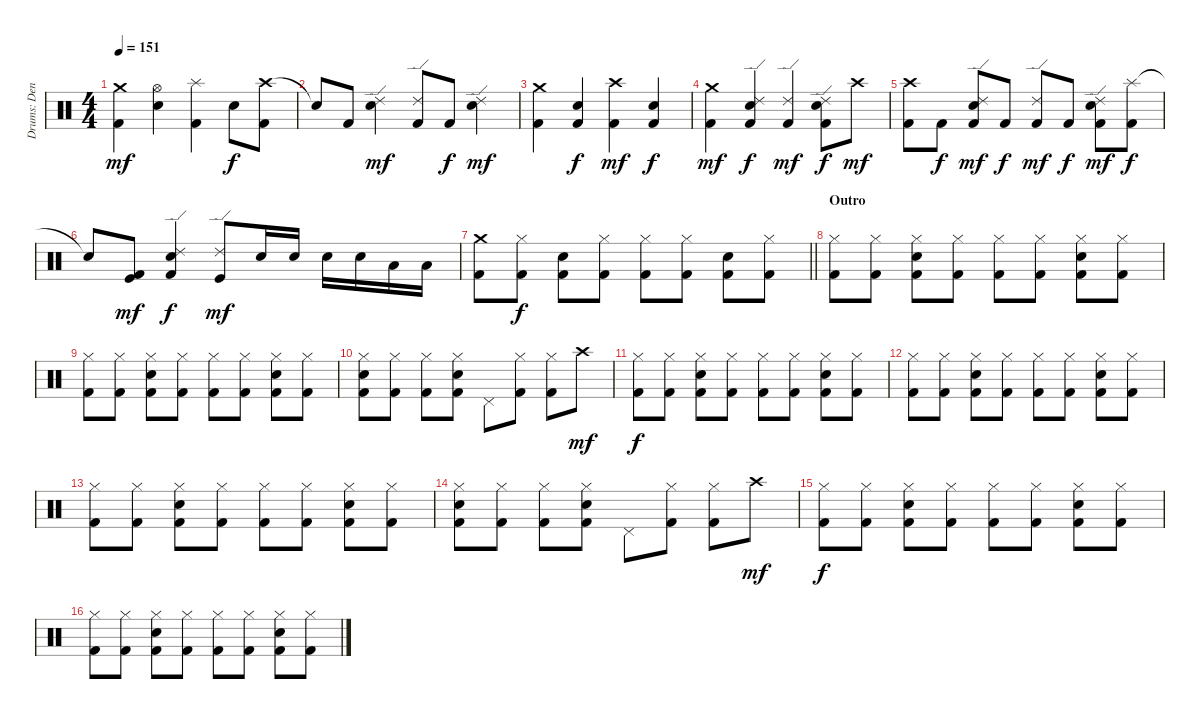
\track ("Drums: Denny Carmassi" "Drums: Den") {instrument percussion}
\staff {score}
\articulation defaults
\ts (4 4)
\tempo 151
\clef neutral
\ks c
("Crash medium (hit)" "Kick (hit) 2").4{dy mf} ("Hi-Hat (open)" "Snare (hit) 2").4 ("Splash (hit)" "Kick (hit) 2").4 "Snare (hit) 2".8{dy f} ("Crash high (hit)" "Kick (hit) 2").8 |
"Snare (hit)"{t}.8 "Kick (hit) 2".8 ("Ride (edge) 2" "Snare (hit) 2").4{dy mf} ("Ride (edge) 2" "Kick (hit) 2").8 "Kick (hit) 2".8{dy f} ("Ride (edge) 2" "Snare (hit) 2").4{dy mf} |
("Crash medium (hit)" "Kick (hit) 2").4 ("Snare (hit) 2" "Kick (hit) 2").4{dy f} ("Crash high (hit)" "Kick (hit) 2").4{dy mf} ("Snare (hit) 2" "Kick (hit) 2").4{dy f} |
("Crash medium (hit)" "Kick (hit) 2").4{dy mf} ("Ride (edge) 2" "Snare (hit) 2" "Kick (hit) 2").4{dy f} ("Ride (edge) 2" "Kick (hit) 2").4{dy mf} ("Ride (edge) 2" "Snare (hit) 2" "Kick (hit) 2").8{dy f} "Crash high (hit)".8{dy mf} |
("Crash high (hit)" "Kick (hit) 2").8 "Kick (hit) 2".8{dy f} ("Ride (edge) 2" "Snare (hit) 2" "Kick (hit) 2").8{dy mf} "Kick (hit) 2".8{dy f} ("Ride (edge) 2" "Kick (hit) 2").8{dy mf} "Kick (hit) 2".8{dy f} ("Ride (edge) 2" "Snare (hit) 2" "Kick (hit) 2").8{dy mf} ("Splash (hit)" "Kick (hit) 2").8{dy f} |
"Snare (hit)"{t}.8 ("Kick (hit)" "Kick (hit) 2").8{dy mf} ("Ride (edge) 2" "Snare (hit) 2" "Kick (hit) 2").4{dy f} ("Kick (hit)" "Ride (edge) 2").8{dy mf} "Snare (hit) 2".16 "Snare (hit) 2".16 "Snare (hit) 2".16 "Snare (hit) 2".16 "Low Floor Tom (hit)".16 "Low Floor Tom (hit)".16 |
\barLineRight lightlight
("Crash medium (hit)" "Kick (hit) 2").8 ("Hi-Hat (closed)" "Kick (hit) 2").8{dy f} ("Snare (hit) 2" "Kick (hit) 2").8 ("Hi-Hat (closed)" "Kick (hit) 2").8 ("Hi-Hat (closed)" "Kick (hit) 2").8 ("Hi-Hat (closed)" "Kick (hit) 2").8 ("Snare (hit) 2" "Kick (hit) 2").8 ("Hi-Hat (closed)" "Kick (hit) 2").8 |
\section ("" "Outro")
("Hi-Hat (closed)" "Kick (hit) 2").8 ("Hi-Hat (closed)" "Kick (hit) 2").8 ("Hi-Hat (closed)" "Snare (hit) 2" "Kick (hit) 2").8 ("Hi-Hat (closed)" "Kick (hit) 2").8 ("Hi-Hat (closed)" "Kick (hit) 2").8 ("Hi-Hat (closed)" "Kick (hit) 2").8 ("Hi-Hat (closed)" "Snare (hit) 2" "Kick (hit) 2").8 ("Hi-Hat (closed)" "Kick (hit) 2").8 |
("Hi-Hat (closed)" "Kick (hit) 2").8 ("Hi-Hat (closed)" "Kick (hit) 2").8 ("Hi-Hat (closed)" "Snare (hit) 2" "Kick (hit) 2").8 ("Hi-Hat (closed)" "Kick (hit) 2").8 ("Hi-Hat (closed)" "Kick (hit) 2").8 ("Hi-Hat (closed)" "Kick (hit) 2").8 ("Hi-Hat (closed)" "Snare (hit) 2" "Kick (hit) 2").8 ("Hi-Hat (closed)" "Kick (hit) 2").8 |
("Hi-Hat (closed)" "Snare (hit) 2" "Kick (hit) 2").8 ("Hi-Hat (closed)" "Kick (hit) 2").8 ("Hi-Hat (closed)" "Kick (hit) 2").8 ("Hi-Hat (closed)" "Snare (hit) 2" "Kick (hit) 2").8 "Pedal Hi-Hat (hit)".8 ("Hi-Hat (closed)" "Kick (hit) 2").8 ("Hi-Hat (closed)" "Kick (hit) 2").8 "Crash high (hit)".8{dy mf} |
("Hi-Hat (closed)" "Kick (hit) 2").8{dy f} ("Hi-Hat (closed)" "Kick (hit) 2").8 ("Hi-Hat (closed)" "Snare (hit) 2" "Kick (hit) 2").8 ("Hi-Hat (closed)" "Kick (hit) 2").8 ("Hi-Hat (closed)" "Kick (hit) 2").8 ("Hi-Hat (closed)" "Kick (hit) 2").8 ("Hi-Hat (closed)" "Snare (hit) 2" "Kick (hit) 2").8 ("Hi-Hat (closed)" "Kick (hit) 2").8 |
("Hi-Hat (closed)" "Kick (hit) 2").8 ("Hi-Hat (closed)" "Kick (hit) 2").8 ("Hi-Hat (closed)" "Snare (hit) 2" "Kick (hit) 2").8 ("Hi-Hat (closed)" "Kick (hit) 2").8 ("Hi-Hat (closed)" "Kick (hit) 2").8 ("Hi-Hat (closed)" "Kick (hit) 2").8 ("Hi-Hat (closed)" "Snare (hit) 2" "Kick (hit) 2").8 ("Hi-Hat (closed)" "Kick (hit) 2").8 |
("Hi-Hat (closed)" "Kick (hit) 2").8 ("Hi-Hat (closed)" "Kick (hit) 2").8 ("Hi-Hat (closed)" "Snare (hit) 2" "Kick (hit) 2").8 ("Hi-Hat (closed)" "Kick (hit) 2").8 ("Hi-Hat (closed)" "Kick (hit) 2").8 ("Hi-Hat (closed)" "Kick (hit) 2").8 ("Hi-Hat (closed)" "Snare (hit) 2" "Kick (hit) 2").8 ("Hi-Hat (closed)" "Kick (hit) 2").8 |
("Hi-Hat (closed)" "Snare (hit) 2" "Kick (hit) 2").8 ("Hi-Hat (closed)" "Kick (hit) 2").8 ("Hi-Hat (closed)" "Kick (hit) 2").8 ("Hi-Hat (closed)" "Snare (hit) 2" "Kick (hit) 2").8 "Pedal Hi-Hat (hit)".8 ("Hi-Hat (closed)" "Kick (hit) 2").8 ("Hi-Hat (closed)" "Kick (hit) 2").8 "Crash high (hit)".8{dy mf} |
("Hi-Hat (closed)" "Kick (hit) 2").8{dy f} ("Hi-Hat (closed)" "Kick (hit) 2").8 ("Hi-Hat (closed)" "Snare (hit) 2" "Kick (hit) 2").8 ("Hi-Hat (closed)" "Kick (hit) 2").8 ("Hi-Hat (closed)" "Kick (hit) 2").8 ("Hi-Hat (closed)" "Kick (hit) 2").8 ("Hi-Hat (closed)" "Snare (hit) 2" "Kick (hit) 2").8 ("Hi-Hat (closed)" "Kick (hit) 2").8 |
("Hi-Hat (closed)" "Kick (hit) 2").8 ("Hi-Hat (closed)" "Kick (hit) 2").8 ("Hi-Hat (closed)" "Snare (hit) 2" "Kick (hit) 2").8 ("Hi-Hat (closed)" "Kick (hit) 2").8 ("Hi-Hat (closed)" "Kick (hit) 2").8 ("Hi-Hat (closed)" "Kick (hit) 2").8 ("Hi-Hat (closed)" "Snare (hit) 2" "Kick (hit) 2").8 ("Hi-Hat (closed)" "Kick (hit) 2").8
